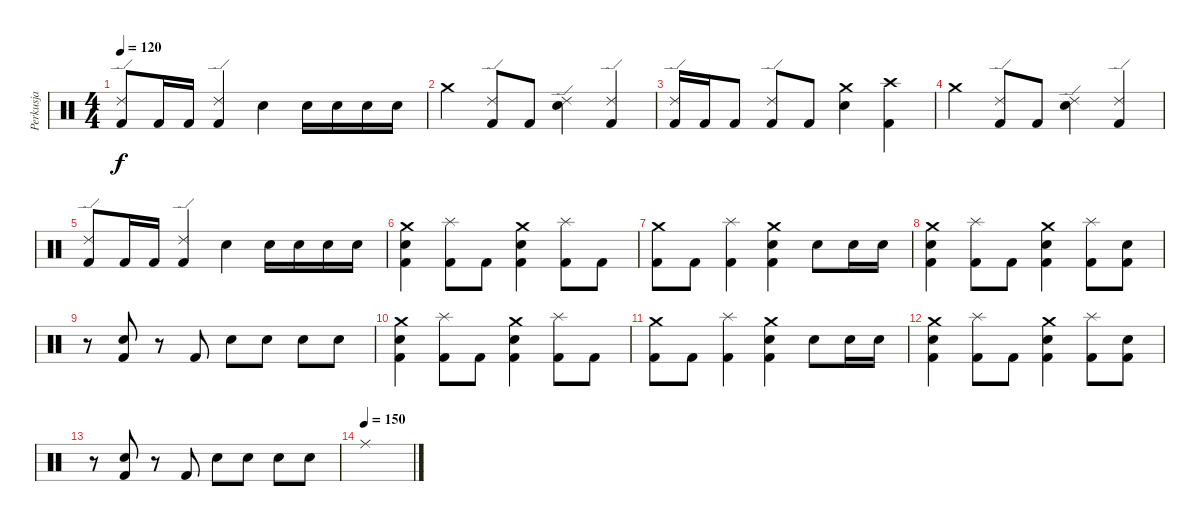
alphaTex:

\track ("Perkusja" "Perkusja") {instrument percussion}
\staff {score}
\articulation defaults
\ts (4 4)
\tempo 120
\clef neutral
\ks c
("Ride (edge) 2" "Kick (hit) 2").8{dy f} "Kick (hit) 2".16 "Kick (hit) 2".16 ("Ride (edge) 2" "Kick (hit) 2").4 "Electric Snare (hit)".4 "Electric Snare (hit)".16 "Electric Snare (hit)".16 "Electric Snare (hit)".16 "Electric Snare (hit)".16 |
"Crash medium (hit)".4 ("Ride (edge) 2" "Kick (hit) 2").8 "Kick (hit) 2".8 ("Ride (edge) 2" "Electric Snare (hit)").4 ("Ride (edge) 2" "Kick (hit) 2").4 |
("Ride (edge) 2" "Kick (hit) 2").16 "Kick (hit) 2".16 "Kick (hit) 2".8 ("Ride (edge) 2" "Kick (hit) 2").8 "Kick (hit) 2".8 ("Crash medium (hit)" "Electric Snare (hit)").4 ("Crash high (hit)" "Kick (hit) 2").4 |
"Crash medium (hit)".4 ("Ride (edge) 2" "Kick (hit) 2").8 "Kick (hit) 2".8 ("Ride (edge) 2" "Electric Snare (hit)").4 ("Ride (edge) 2" "Kick (hit) 2").4 |
("Ride (edge) 2" "Kick (hit) 2").8 "Kick (hit) 2".16 "Kick (hit) 2".16 ("Ride (edge) 2" "Kick (hit) 2").4 "Electric Snare (hit)".4 "Electric Snare (hit)".16 "Electric Snare (hit)".16 "Electric Snare (hit)".16 "Electric Snare (hit)".16 |
("Crash medium (hit)" "Electric Snare (hit)" "Kick (hit) 2").4 ("Splash (hit)" "Kick (hit) 2").8 "Kick (hit) 2".8 ("Crash medium (hit)" "Electric Snare (hit)" "Kick (hit) 2").4 ("Splash (hit)" "Kick (hit) 2").8 "Kick (hit) 2".8 |
("Crash medium (hit)" "Kick (hit) 2").8 "Kick (hit) 2".8 ("Splash (hit)" "Kick (hit) 2").4 ("Crash medium (hit)" "Electric Snare (hit)" "Kick (hit) 2").4 "Electric Snare (hit)".8 "Electric Snare (hit)".16 "Electric Snare (hit)".16 |
("Crash medium (hit)" "Electric Snare (hit)" "Kick (hit) 2").4 ("Splash (hit)" "Kick (hit) 2").8 "Kick (hit) 2".8 ("Crash medium (hit)" "Electric Snare (hit)" "Kick (hit) 2").4 ("Splash (hit)" "Kick (hit) 2").8 ("Electric Snare (hit)" "Kick (hit) 2").8 |
r.8 ("Electric Snare (hit)" "Kick (hit) 2").8 r.8 "Kick (hit) 2".8 "Electric Snare (hit)".8 "Electric Snare (hit)".8 "Electric Snare (hit)".8 "Electric Snare (hit)".8 |
("Crash medium (hit)" "Electric Snare (hit)" "Kick (hit) 2").4 ("Splash (hit)" "Kick (hit) 2").8 "Kick (hit) 2".8 ("Crash medium (hit)" "Electric Snare (hit)" "Kick (hit) 2").4 ("Splash (hit)" "Kick (hit) 2").8 "Kick (hit) 2".8 |
("Crash medium (hit)" "Kick (hit) 2").8 "Kick (hit) 2".8 ("Splash (hit)" "Kick (hit) 2").4 ("Crash medium (hit)" "Electric Snare (hit)" "Kick (hit) 2").4 "Electric Snare (hit)".8 "Electric Snare (hit)".16 "Electric Snare (hit)".16 |
("Crash medium (hit)" "Electric Snare (hit)" "Kick (hit) 2").4 ("Splash (hit)" "Kick (hit) 2").8 "Kick (hit) 2".8 ("Crash medium (hit)" "Electric Snare (hit)" "Kick (hit) 2").4 ("Splash (hit)" "Kick (hit) 2").8 ("Electric Snare (hit)" "Kick (hit) 2").8 |
r.8 ("Electric Snare (hit)" "Kick (hit) 2").8 r.8 "Kick (hit) 2".8 "Electric Snare (hit)".8 "Electric Snare (hit)".8 "Electric Snare (hit)".8 "Electric Snare (hit)".8 |
\tempo (150)
"Ride (middle)".1
